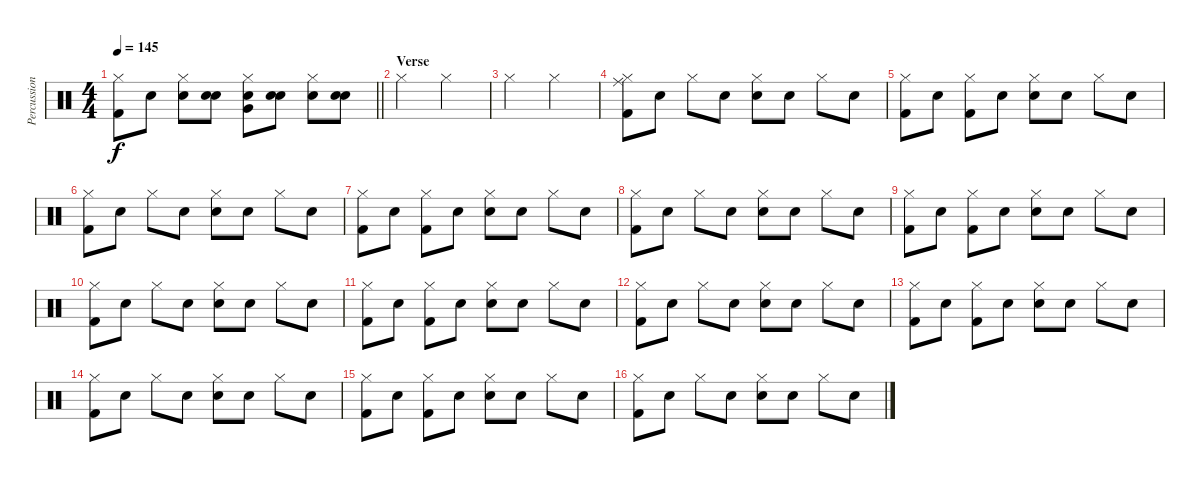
\track ("Percussion" "Percussion") {instrument percussion}
\staff {score}
\articulation defaults
\ts (4 4)
\tempo 145
\clef neutral
\barLineRight lightlight
\ks c
("Hi-Hat (closed)" "Kick (hit) 2").8{dy f} "Snare (hit)"{x}.8 ("Hi-Hat (closed)" "Electric Snare (hit)"{x}).8 ("Snare (hit)"{x} "Electric Snare (hit)").8 ("Hi-Hat (closed)" "Very Low Tom (hit)" "Electric Snare (hit)").8 ("Snare (hit)"{x} "Electric Snare (hit)"{x}).8 ("Hi-Hat (closed)" "Electric Snare (hit)").8 ("Snare (hit)"{x} "Electric Snare (hit)").8 |
\section ("" "Verse")
"Hi-Hat (closed)".2 "Hi-Hat (closed)".2 |
"Hi-Hat (closed)".2 "Hi-Hat (closed)".2 |
("Hi-Hat (closed)" "Ride (middle)" "Kick (hit) 2").8 "Snare (hit)"{x}.8 "Hi-Hat (closed)".8 "Snare (hit)"{x}.8 ("Hi-Hat (closed)" "Electric Snare (hit)").8 "Snare (hit)"{x}.8 "Hi-Hat (closed)".8 "Snare (hit)"{x}.8 |
("Hi-Hat (closed)" "Kick (hit) 2").8 "Snare (hit)"{x}.8 ("Hi-Hat (closed)" "Kick (hit) 2").8 "Snare (hit)"{x}.8 ("Hi-Hat (closed)" "Electric Snare (hit)").8 "Snare (hit)"{x}.8 "Hi-Hat (closed)".8 "Snare (hit)"{x}.8 |
("Hi-Hat (closed)" "Kick (hit) 2").8 "Snare (hit)"{x}.8 "Hi-Hat (closed)".8 "Snare (hit)"{x}.8 ("Hi-Hat (closed)" "Electric Snare (hit)").8 "Snare (hit)"{x}.8 "Hi-Hat (closed)".8 "Snare (hit)"{x}.8 |
("Hi-Hat (closed)" "Kick (hit) 2").8 "Snare (hit)"{x}.8 ("Hi-Hat (closed)" "Kick (hit) 2").8 "Snare (hit)"{x}.8 ("Hi-Hat (closed)" "Electric Snare (hit)").8 "Snare (hit)"{x}.8 "Hi-Hat (closed)".8 "Snare (hit)"{x}.8 |
("Hi-Hat (closed)" "Kick (hit) 2").8 "Snare (hit)"{x}.8 "Hi-Hat (closed)".8 "Snare (hit)"{x}.8 ("Hi-Hat (closed)" "Electric Snare (hit)").8 "Snare (hit)"{x}.8 "Hi-Hat (closed)".8 "Snare (hit)"{x}.8 |
("Hi-Hat (closed)" "Kick (hit) 2").8 "Snare (hit)"{x}.8 ("Hi-Hat (closed)" "Kick (hit) 2").8 "Snare (hit)"{x}.8 ("Hi-Hat (closed)" "Electric Snare (hit)").8 "Snare (hit)"{x}.8 "Hi-Hat (closed)".8 "Snare (hit)"{x}.8 |
("Hi-Hat (closed)" "Kick (hit) 2").8 "Snare (hit)"{x}.8 "Hi-Hat (closed)".8 "Snare (hit)"{x}.8 ("Hi-Hat (closed)" "Electric Snare (hit)").8 "Snare (hit)"{x}.8 "Hi-Hat (closed)".8 "Snare (hit)"{x}.8 |
("Hi-Hat (closed)" "Kick (hit) 2").8 "Snare (hit)"{x}.8 ("Hi-Hat (closed)" "Kick (hit) 2").8 "Snare (hit)"{x}.8 ("Hi-Hat (closed)" "Electric Snare (hit)").8 "Snare (hit)"{x}.8 "Hi-Hat (closed)".8 "Snare (hit)"{x}.8 |
("Hi-Hat (closed)" "Kick (hit) 2").8 "Snare (hit)"{x}.8 "Hi-Hat (closed)".8 "Snare (hit)"{x}.8 ("Hi-Hat (closed)" "Electric Snare (hit)").8 "Snare (hit)"{x}.8 "Hi-Hat (closed)".8 "Snare (hit)"{x}.8 |
("Hi-Hat (closed)" "Kick (hit) 2").8 "Snare (hit)"{x}.8 ("Hi-Hat (closed)" "Kick (hit) 2").8 "Snare (hit)"{x}.8 ("Hi-Hat (closed)" "Electric Snare (hit)").8 "Snare (hit)"{x}.8 "Hi-Hat (closed)".8 "Snare (hit)"{x}.8 |
("Hi-Hat (closed)" "Kick (hit) 2").8 "Snare (hit)"{x}.8 "Hi-Hat (closed)".8 "Snare (hit)"{x}.8 ("Hi-Hat (closed)" "Electric Snare (hit)").8 "Snare (hit)"{x}.8 "Hi-Hat (closed)".8 "Snare (hit)"{x}.8 |
("Hi-Hat (closed)" "Kick (hit) 2").8 "Snare (hit)"{x}.8 ("Hi-Hat (closed)" "Kick (hit) 2").8 "Snare (hit)"{x}.8 ("Hi-Hat (closed)" "Electric Snare (hit)").8 "Snare (hit)"{x}.8 "Hi-Hat (closed)".8 "Snare (hit)"{x}.8 |
("Hi-Hat (closed)" "Kick (hit) 2").8 "Snare (hit)"{x}.8 "Hi-Hat (closed)".8 "Snare (hit)"{x}.8 ("Hi-Hat (closed)" "Electric Snare (hit)").8 "Snare (hit)"{x}.8 "Hi-Hat (closed)".8 "Snare (hit)"{x}.8
